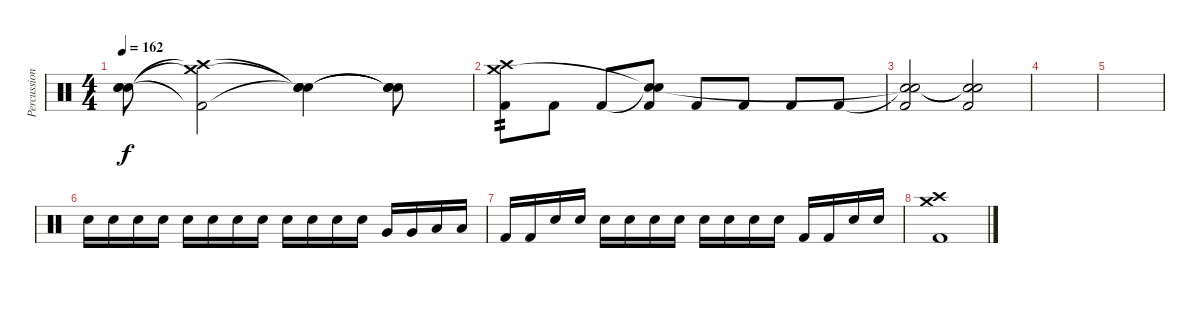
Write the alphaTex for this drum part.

\track ("Percussions" "Percussion") {instrument percussion}
\staff {score}
\articulation defaults
\ts (4 4)
\tempo 162
\clef neutral
\ks c
("Snare (hit)"{t} "Snare (hit)"{t} "Snare (hit)"{t}).8{dy f} ("Crash high (hit)"{t} "Crash medium (hit)"{t} "Kick (hit) 2"{t}).2 ("Snare (hit)"{t} "Snare (hit)"{t} "Snare (hit)"{t}).4 ("Snare (hit)"{t} "Snare (hit)"{t} "Snare (hit)"{t}).8 |
("Crash high (hit)" "Crash medium (hit)" "Kick (hit) 2").8{tp 2} "Kick (hit) 2".8 "Kick (hit) 2".8 ("Snare (hit)"{t} "Snare (hit)"{t} "Kick (hit) 2").8 "Kick (hit) 2".8 "Kick (hit) 2".8 "Kick (hit) 2".8 "Kick (hit) 2".8 |
("Snare (hit)"{t} "Snare (hit)"{t} "Kick (hit) 2").2 ("Snare (hit)"{t} "Snare (hit)"{t} "Kick (hit) 2").2 |
|
|
"Electric Snare (hit)".16 "Electric Snare (hit)".16 "Electric Snare (hit)".16 "Electric Snare (hit)".16 "Electric Snare (hit)".16 "Electric Snare (hit)".16 "Electric Snare (hit)".16 "Electric Snare (hit)".16 "Electric Snare (hit)".16 "Electric Snare (hit)".16 "Electric Snare (hit)".16 "Electric Snare (hit)".16 "Very Low Tom (hit)".16 "Very Low Tom (hit)".16 "Low Floor Tom (hit)".16 "Low Floor Tom (hit)".16 |
"Kick (hit) 2".16 "Kick (hit) 2".16 "Electric Snare (hit)".16 "Electric Snare (hit)".16 "Electric Snare (hit)".16 "Electric Snare (hit)".16 "Electric Snare (hit)".16 "Electric Snare (hit)".16 "Electric Snare (hit)".16 "Electric Snare (hit)".16 "Electric Snare (hit)".16 "Electric Snare (hit)".16 "Kick (hit) 2".16 "Kick (hit) 2".16 "Electric Snare (hit)".16 "Electric Snare (hit)".16 |
("Kick (hit) 2" "Crash medium (hit)" "Crash high (hit)").1
